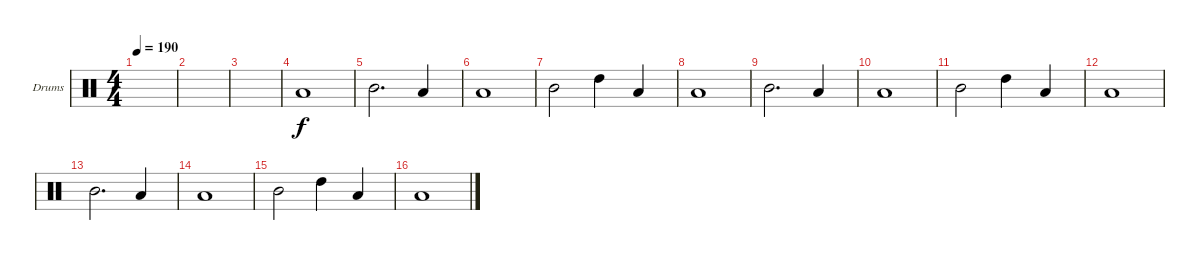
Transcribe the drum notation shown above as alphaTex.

\defaultSystemsLayout 4
\bracketExtendMode groupsimilarinstruments
\firstSystemTrackNameOrientation horizontal
\otherSystemsTrackNameOrientation horizontal
\track ("Drumkit" "Drums") {instrument percussion}
\staff {score}
\articulation defaults
\ts (4 4)
\tempo 190
\clef neutral
\ks c
|
|
|
"Low Tom (hit)".1 |
"Mid Tom (hit)".2{d} "Low Tom (hit)".4 |
"Low Tom (hit)".1 |
"Mid Tom (hit)".2 "High Tom (hit)".4 "Low Tom (hit)".4 |
"Low Tom (hit)".1 |
"Mid Tom (hit)".2{d} "Low Tom (hit)".4 |
"Low Tom (hit)".1 |
"Mid Tom (hit)".2 "High Tom (hit)".4 "Low Tom (hit)".4 |
"Low Tom (hit)".1 |
"Mid Tom (hit)".2{d} "Low Tom (hit)".4 |
"Low Tom (hit)".1 |
"Mid Tom (hit)".2 "High Tom (hit)".4 "Low Tom (hit)".4 |
"Low Tom (hit)".1
